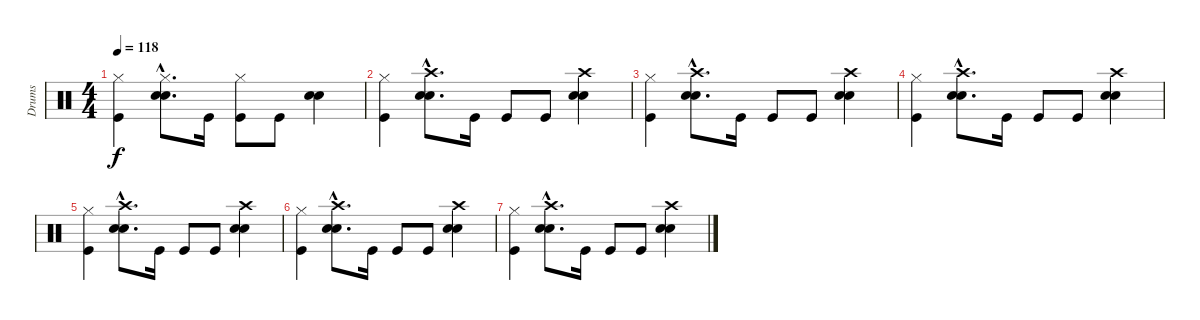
\track ("Drums" "Drums") {instrument percussion}
\staff {score}
\articulation defaults
\ts (4 4)
\tempo 118
\clef neutral
\ks c
("Hi-Hat (closed)" "Kick (hit)").4{dy f} ("Hi-Hat (closed)"{hac} "Electric Snare (hit)"{hac} "Snare (hit) 2"{hac}).8{d} "Kick (hit)".16 ("Hi-Hat (closed)" "Kick (hit)").8 "Kick (hit)".8 ("Electric Snare (hit)" "Snare (hit) 2").4 |
("Hi-Hat (closed)" "Kick (hit)").4 ("Crash high (hit)"{hac} "Electric Snare (hit)"{hac} "Snare (hit) 2"{hac}).8{d} "Kick (hit)".16 "Kick (hit)".8 "Kick (hit)".8 ("Crash high (hit)" "Electric Snare (hit)" "Snare (hit) 2").4 |
("Hi-Hat (closed)" "Kick (hit)").4 ("Crash high (hit)"{hac} "Electric Snare (hit)"{hac} "Snare (hit) 2"{hac}).8{d} "Kick (hit)".16 "Kick (hit)".8 "Kick (hit)".8 ("Crash high (hit)" "Electric Snare (hit)" "Snare (hit) 2").4 |
("Hi-Hat (closed)" "Kick (hit)").4{volume 0} ("Crash high (hit)"{hac} "Electric Snare (hit)"{hac} "Snare (hit) 2"{hac}).8{d} "Kick (hit)".16 "Kick (hit)".8 "Kick (hit)".8 ("Crash high (hit)" "Electric Snare (hit)" "Snare (hit) 2").4 |
("Hi-Hat (closed)" "Kick (hit)").4 ("Crash high (hit)"{hac} "Electric Snare (hit)"{hac} "Snare (hit) 2"{hac}).8{d} "Kick (hit)".16 "Kick (hit)".8 "Kick (hit)".8 ("Crash high (hit)" "Electric Snare (hit)" "Snare (hit) 2").4 |
("Hi-Hat (closed)" "Kick (hit)").4 ("Crash high (hit)"{hac} "Electric Snare (hit)"{hac} "Snare (hit) 2"{hac}).8{d} "Kick (hit)".16 "Kick (hit)".8 "Kick (hit)".8 ("Crash high (hit)" "Electric Snare (hit)" "Snare (hit) 2").4 |
("Hi-Hat (closed)" "Kick (hit)").4 ("Crash high (hit)"{hac} "Electric Snare (hit)"{hac} "Snare (hit) 2"{hac}).8{d} "Kick (hit)".16 "Kick (hit)".8 "Kick (hit)".8 ("Crash high (hit)" "Electric Snare (hit)" "Snare (hit) 2").4
